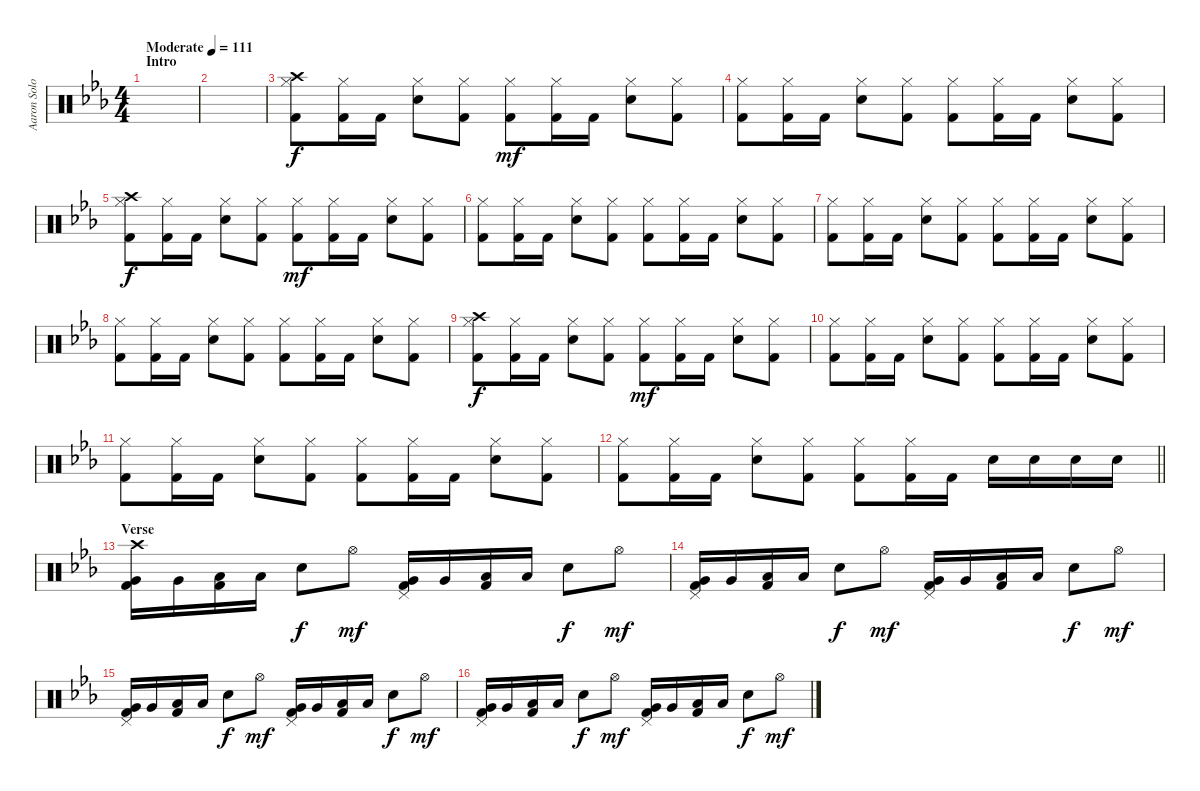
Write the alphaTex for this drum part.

\track ("Aaron Solowoniuk (Drums)" "Aaron Solo") {instrument percussion}
\staff {score}
\articulation defaults
\ts (4 4)
\section ("" "Intro")
\tempo (111 "Moderate")
\clef neutral
\ks cminor
|
|
("Crash high (hit)" "Hi-Hat (closed)" "Kick (hit) 2").8 ("Hi-Hat (closed)" "Kick (hit) 2").16 "Kick (hit) 2".16 ("Hi-Hat (closed)" "Snare (hit) 2").8 ("Hi-Hat (closed)" "Kick (hit) 2").8 ("Hi-Hat (closed)" "Kick (hit) 2").8{dy mf} ("Hi-Hat (closed)" "Kick (hit) 2").16 "Kick (hit) 2".16 ("Hi-Hat (closed)" "Snare (hit) 2").8 ("Hi-Hat (closed)" "Kick (hit) 2").8 |
("Hi-Hat (closed)" "Kick (hit) 2").8 ("Hi-Hat (closed)" "Kick (hit) 2").16 "Kick (hit) 2".16 ("Hi-Hat (closed)" "Snare (hit) 2").8 ("Hi-Hat (closed)" "Kick (hit) 2").8 ("Hi-Hat (closed)" "Kick (hit) 2").8 ("Hi-Hat (closed)" "Kick (hit) 2").16 "Kick (hit) 2".16 ("Hi-Hat (closed)" "Snare (hit) 2").8 ("Hi-Hat (closed)" "Kick (hit) 2").8 |
("Crash high (hit)" "Hi-Hat (closed)" "Kick (hit) 2").8{dy f} ("Hi-Hat (closed)" "Kick (hit) 2").16 "Kick (hit) 2".16 ("Hi-Hat (closed)" "Snare (hit) 2").8 ("Hi-Hat (closed)" "Kick (hit) 2").8 ("Hi-Hat (closed)" "Kick (hit) 2").8{dy mf} ("Hi-Hat (closed)" "Kick (hit) 2").16 "Kick (hit) 2".16 ("Hi-Hat (closed)" "Snare (hit) 2").8 ("Hi-Hat (closed)" "Kick (hit) 2").8 |
("Hi-Hat (closed)" "Kick (hit) 2").8 ("Hi-Hat (closed)" "Kick (hit) 2").16 "Kick (hit) 2".16 ("Hi-Hat (closed)" "Snare (hit) 2").8 ("Hi-Hat (closed)" "Kick (hit) 2").8 ("Hi-Hat (closed)" "Kick (hit) 2").8 ("Hi-Hat (closed)" "Kick (hit) 2").16 "Kick (hit) 2".16 ("Hi-Hat (closed)" "Snare (hit) 2").8 ("Hi-Hat (closed)" "Kick (hit) 2").8 |
("Hi-Hat (closed)" "Kick (hit) 2").8 ("Hi-Hat (closed)" "Kick (hit) 2").16 "Kick (hit) 2".16 ("Hi-Hat (closed)" "Snare (hit) 2").8 ("Hi-Hat (closed)" "Kick (hit) 2").8 ("Hi-Hat (closed)" "Kick (hit) 2").8 ("Hi-Hat (closed)" "Kick (hit) 2").16 "Kick (hit) 2".16 ("Hi-Hat (closed)" "Snare (hit) 2").8 ("Hi-Hat (closed)" "Kick (hit) 2").8 |
("Hi-Hat (closed)" "Kick (hit) 2").8 ("Hi-Hat (closed)" "Kick (hit) 2").16 "Kick (hit) 2".16 ("Hi-Hat (closed)" "Snare (hit) 2").8 ("Hi-Hat (closed)" "Kick (hit) 2").8 ("Hi-Hat (closed)" "Kick (hit) 2").8 ("Hi-Hat (closed)" "Kick (hit) 2").16 "Kick (hit) 2".16 ("Hi-Hat (closed)" "Snare (hit) 2").8 ("Hi-Hat (closed)" "Kick (hit) 2").8 |
("Crash high (hit)" "Hi-Hat (closed)" "Kick (hit) 2").8{dy f} ("Hi-Hat (closed)" "Kick (hit) 2").16 "Kick (hit) 2".16 ("Hi-Hat (closed)" "Snare (hit) 2").8 ("Hi-Hat (closed)" "Kick (hit) 2").8 ("Hi-Hat (closed)" "Kick (hit) 2").8{dy mf} ("Hi-Hat (closed)" "Kick (hit) 2").16 "Kick (hit) 2".16 ("Hi-Hat (closed)" "Snare (hit) 2").8 ("Hi-Hat (closed)" "Kick (hit) 2").8 |
("Hi-Hat (closed)" "Kick (hit) 2").8 ("Hi-Hat (closed)" "Kick (hit) 2").16 "Kick (hit) 2".16 ("Hi-Hat (closed)" "Snare (hit) 2").8 ("Hi-Hat (closed)" "Kick (hit) 2").8 ("Hi-Hat (closed)" "Kick (hit) 2").8 ("Hi-Hat (closed)" "Kick (hit) 2").16 "Kick (hit) 2".16 ("Hi-Hat (closed)" "Snare (hit) 2").8 ("Hi-Hat (closed)" "Kick (hit) 2").8 |
("Hi-Hat (closed)" "Kick (hit) 2").8 ("Hi-Hat (closed)" "Kick (hit) 2").16 "Kick (hit) 2".16 ("Hi-Hat (closed)" "Snare (hit) 2").8 ("Hi-Hat (closed)" "Kick (hit) 2").8 ("Hi-Hat (closed)" "Kick (hit) 2").8 ("Hi-Hat (closed)" "Kick (hit) 2").16 "Kick (hit) 2".16 ("Hi-Hat (closed)" "Snare (hit) 2").8 ("Hi-Hat (closed)" "Kick (hit) 2").8 |
\barLineRight lightlight
("Hi-Hat (closed)" "Kick (hit) 2").8 ("Hi-Hat (closed)" "Kick (hit) 2").16 "Kick (hit) 2".16 ("Hi-Hat (closed)" "Snare (hit) 2").8 ("Hi-Hat (closed)" "Kick (hit) 2").8 ("Hi-Hat (closed)" "Kick (hit) 2").8 ("Hi-Hat (closed)" "Kick (hit) 2").16 "Kick (hit) 2".16 "Snare (hit) 2".16 "Snare (hit) 2".16 "Snare (hit) 2".16 "Snare (hit) 2".16 |
\section ("" "Verse")
("Crash high (hit)" "Very Low Tom (hit)" "Kick (hit) 2").16 "Very Low Tom (hit)".16 ("Low Floor Tom (hit)" "Kick (hit) 2").16 "Low Floor Tom (hit)".16 "Snare (hit) 2".8{dy f} "Hi-Hat (open)".8{dy mf} ("Pedal Hi-Hat (hit)" "Very Low Tom (hit)" "Kick (hit) 2").16 "Very Low Tom (hit)".16 ("Low Floor Tom (hit)" "Kick (hit) 2").16 "Low Floor Tom (hit)".16 "Snare (hit) 2".8{dy f} "Hi-Hat (open)".8{dy mf} |
("Pedal Hi-Hat (hit)" "Very Low Tom (hit)" "Kick (hit) 2").16 "Very Low Tom (hit)".16 ("Low Floor Tom (hit)" "Kick (hit) 2").16 "Low Floor Tom (hit)".16 "Snare (hit) 2".8{dy f} "Hi-Hat (open)".8{dy mf} ("Pedal Hi-Hat (hit)" "Very Low Tom (hit)" "Kick (hit) 2").16 "Very Low Tom (hit)".16 ("Low Floor Tom (hit)" "Kick (hit) 2").16 "Low Floor Tom (hit)".16 "Snare (hit) 2".8{dy f} "Hi-Hat (open)".8{dy mf} |
("Pedal Hi-Hat (hit)" "Very Low Tom (hit)" "Kick (hit) 2").16 "Very Low Tom (hit)".16 ("Low Floor Tom (hit)" "Kick (hit) 2").16 "Low Floor Tom (hit)".16 "Snare (hit) 2".8{dy f} "Hi-Hat (open)".8{dy mf} ("Pedal Hi-Hat (hit)" "Very Low Tom (hit)" "Kick (hit) 2").16 "Very Low Tom (hit)".16 ("Low Floor Tom (hit)" "Kick (hit) 2").16 "Low Floor Tom (hit)".16 "Snare (hit) 2".8{dy f} "Hi-Hat (open)".8{dy mf} |
("Pedal Hi-Hat (hit)" "Very Low Tom (hit)" "Kick (hit) 2").16 "Very Low Tom (hit)".16 ("Low Floor Tom (hit)" "Kick (hit) 2").16 "Low Floor Tom (hit)".16 "Snare (hit) 2".8{dy f} "Hi-Hat (open)".8{dy mf} ("Pedal Hi-Hat (hit)" "Very Low Tom (hit)" "Kick (hit) 2").16 "Very Low Tom (hit)".16 ("Low Floor Tom (hit)" "Kick (hit) 2").16 "Low Floor Tom (hit)".16 "Snare (hit) 2".8{dy f} "Hi-Hat (open)".8{dy mf}
